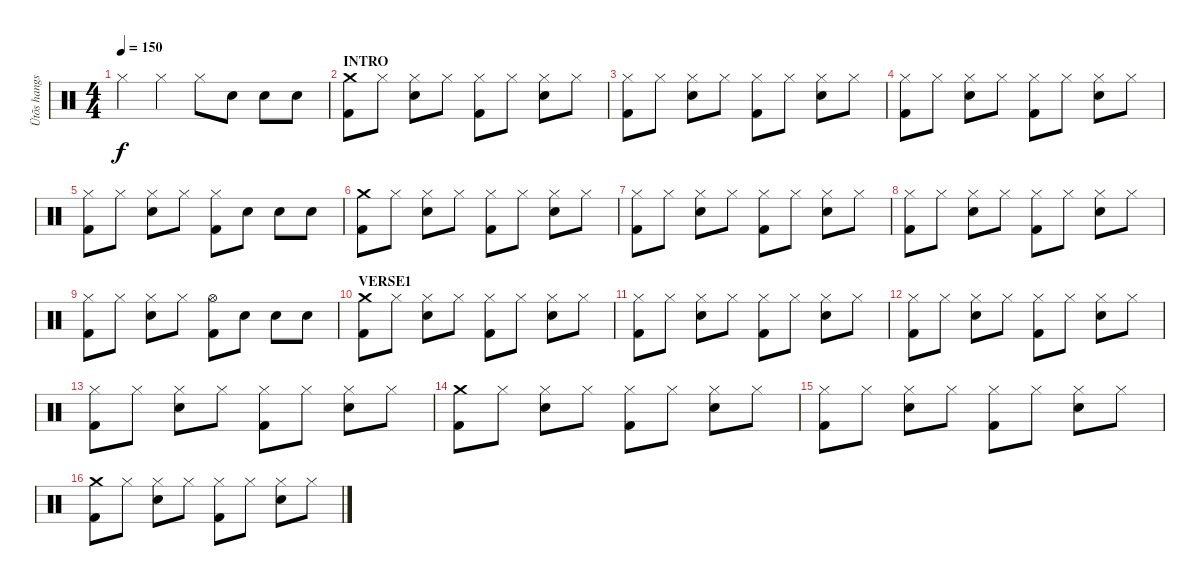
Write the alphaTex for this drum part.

\track ("Ütõs hangszer" "Ütõs hangs") {instrument percussion}
\staff {score}
\articulation defaults
\ts (4 4)
\tempo 150
\clef neutral
\ks c "Hi-Hat (closed)".4{dy f} "Hi-Hat (closed)".4 "Hi-Hat (closed)".8 "Electric Snare (hit)".8 "Electric Snare (hit)".8 "Electric Snare (hit)".8
|
\section ("" "INTRO")
("Crash medium (hit)" "Kick (hit) 2").8 "Hi-Hat (closed)".8 ("Hi-Hat (closed)" "Electric Snare (hit)").8 "Hi-Hat (closed)".8 ("Hi-Hat (closed)" "Kick (hit) 2").8 "Hi-Hat (closed)".8 ("Hi-Hat (closed)" "Electric Snare (hit)").8 "Hi-Hat (closed)".8 |
("Hi-Hat (closed)" "Kick (hit) 2").8 "Hi-Hat (closed)".8 ("Hi-Hat (closed)" "Electric Snare (hit)").8 "Hi-Hat (closed)".8 ("Hi-Hat (closed)" "Kick (hit) 2").8 "Hi-Hat (closed)".8 ("Hi-Hat (closed)" "Electric Snare (hit)").8 "Hi-Hat (closed)".8 |
("Hi-Hat (closed)" "Kick (hit) 2").8 "Hi-Hat (closed)".8 ("Hi-Hat (closed)" "Electric Snare (hit)").8 "Hi-Hat (closed)".8 ("Hi-Hat (closed)" "Kick (hit) 2").8 "Hi-Hat (closed)".8 ("Hi-Hat (closed)" "Electric Snare (hit)").8 "Hi-Hat (closed)".8 |
("Hi-Hat (closed)" "Kick (hit) 2").8 "Hi-Hat (closed)".8 ("Hi-Hat (closed)" "Electric Snare (hit)").8 "Hi-Hat (closed)".8 ("Hi-Hat (closed)" "Kick (hit) 2").8 "Electric Snare (hit)".8 "Electric Snare (hit)".8 "Electric Snare (hit)".8 |
("Crash medium (hit)" "Kick (hit) 2").8 "Hi-Hat (closed)".8 ("Hi-Hat (closed)" "Electric Snare (hit)").8 "Hi-Hat (closed)".8 ("Hi-Hat (closed)" "Kick (hit) 2").8 "Hi-Hat (closed)".8 ("Hi-Hat (closed)" "Electric Snare (hit)").8 "Hi-Hat (closed)".8 |
("Hi-Hat (closed)" "Kick (hit) 2").8 "Hi-Hat (closed)".8 ("Hi-Hat (closed)" "Electric Snare (hit)").8 "Hi-Hat (closed)".8 ("Hi-Hat (closed)" "Kick (hit) 2").8 "Hi-Hat (closed)".8 ("Hi-Hat (closed)" "Electric Snare (hit)").8 "Hi-Hat (closed)".8 |
("Hi-Hat (closed)" "Kick (hit) 2").8 "Hi-Hat (closed)".8 ("Hi-Hat (closed)" "Electric Snare (hit)").8 "Hi-Hat (closed)".8 ("Hi-Hat (closed)" "Kick (hit) 2").8 "Hi-Hat (closed)".8 ("Hi-Hat (closed)" "Electric Snare (hit)").8 "Hi-Hat (closed)".8 |
("Hi-Hat (closed)" "Kick (hit) 2").8 "Hi-Hat (closed)".8 ("Hi-Hat (closed)" "Electric Snare (hit)").8 "Hi-Hat (closed)".8 ("Hi-Hat (open)" "Kick (hit) 2").8 "Electric Snare (hit)".8 "Electric Snare (hit)".8 "Electric Snare (hit)".8 |
\section ("" "VERSE1")
("Crash medium (hit)" "Kick (hit) 2").8 "Hi-Hat (closed)".8 ("Hi-Hat (closed)" "Electric Snare (hit)").8 "Hi-Hat (closed)".8 ("Hi-Hat (closed)" "Kick (hit) 2").8 "Hi-Hat (closed)".8 ("Hi-Hat (closed)" "Electric Snare (hit)").8 "Hi-Hat (closed)".8 |
("Hi-Hat (closed)" "Kick (hit) 2").8 "Hi-Hat (closed)".8 ("Hi-Hat (closed)" "Electric Snare (hit)").8 "Hi-Hat (closed)".8 ("Hi-Hat (closed)" "Kick (hit) 2").8 "Hi-Hat (closed)".8 ("Hi-Hat (closed)" "Electric Snare (hit)").8 "Hi-Hat (closed)".8 |
("Hi-Hat (closed)" "Kick (hit) 2").8 "Hi-Hat (closed)".8 ("Hi-Hat (closed)" "Electric Snare (hit)").8 "Hi-Hat (closed)".8 ("Hi-Hat (closed)" "Kick (hit) 2").8 "Hi-Hat (closed)".8 ("Hi-Hat (closed)" "Electric Snare (hit)").8 "Hi-Hat (closed)".8 |
("Hi-Hat (closed)" "Kick (hit) 2").8 "Hi-Hat (closed)".8 ("Hi-Hat (closed)" "Electric Snare (hit)").8 "Hi-Hat (closed)".8 ("Hi-Hat (closed)" "Kick (hit) 2").8 "Hi-Hat (closed)".8 ("Hi-Hat (closed)" "Electric Snare (hit)").8 "Hi-Hat (closed)".8 |
("Crash medium (hit)" "Kick (hit) 2").8 "Hi-Hat (closed)".8 ("Hi-Hat (closed)" "Electric Snare (hit)").8 "Hi-Hat (closed)".8 ("Hi-Hat (closed)" "Kick (hit) 2").8 "Hi-Hat (closed)".8 ("Hi-Hat (closed)" "Electric Snare (hit)").8 "Hi-Hat (closed)".8 |
("Hi-Hat (closed)" "Kick (hit) 2").8 "Hi-Hat (closed)".8 ("Hi-Hat (closed)" "Electric Snare (hit)").8 "Hi-Hat (closed)".8 ("Hi-Hat (closed)" "Kick (hit) 2").8 "Hi-Hat (closed)".8 ("Hi-Hat (closed)" "Electric Snare (hit)").8 "Hi-Hat (closed)".8 |
("Crash medium (hit)" "Kick (hit) 2").8 "Hi-Hat (closed)".8 ("Hi-Hat (closed)" "Electric Snare (hit)").8 "Hi-Hat (closed)".8 ("Hi-Hat (closed)" "Kick (hit) 2").8 "Hi-Hat (closed)".8 ("Hi-Hat (closed)" "Electric Snare (hit)").8 "Hi-Hat (closed)".8
